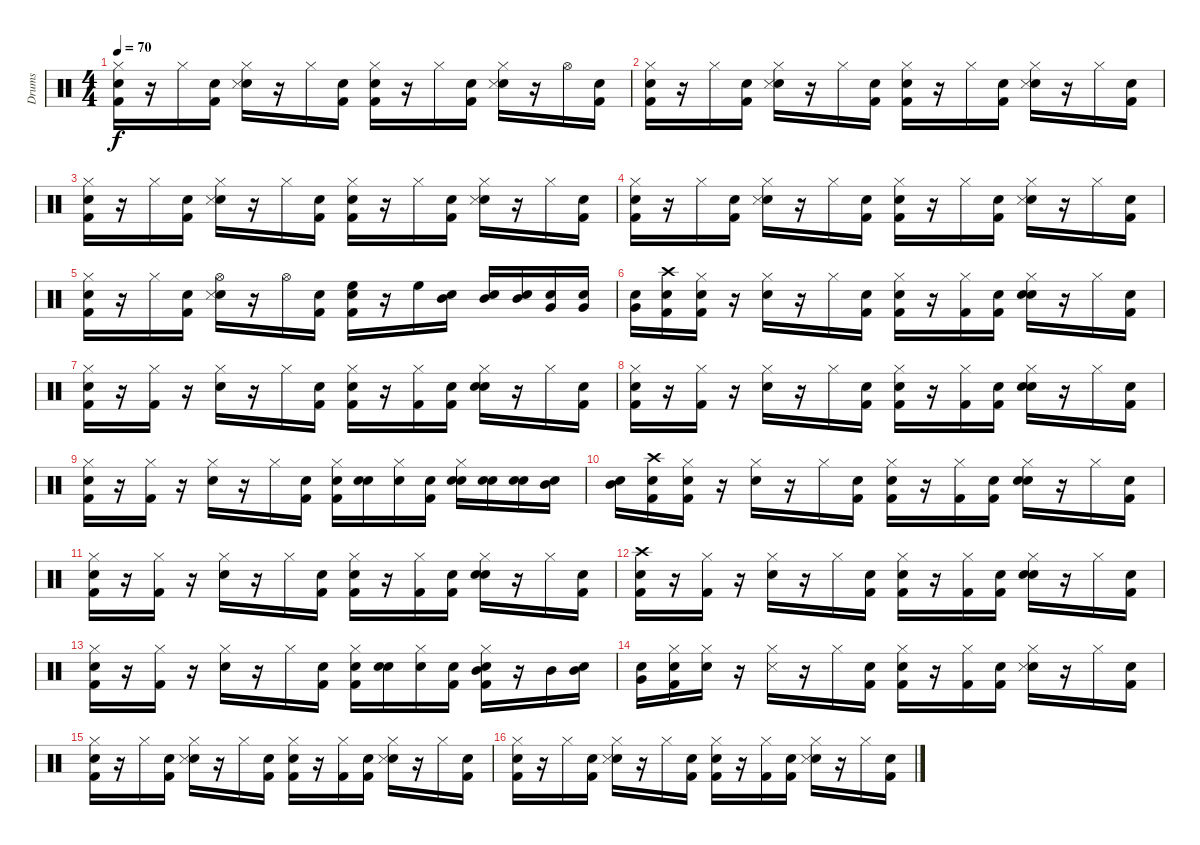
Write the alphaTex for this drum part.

\track ("Drums" "Drums") {instrument percussion}
\staff {score}
\articulation defaults
\ts (4 4)
\tempo 70
\clef neutral
\ks c
("Snare (hit)" "Kick (hit) 2" "Hi-Hat (closed)").16{dy f} r.16 "Hi-Hat (closed)".16 ("Snare (hit)" "Kick (hit) 2").16 ("Snare (hit)" "Snare (side stick) 3" "Hi-Hat (closed)").16 r.16 "Hi-Hat (closed)".16 ("Snare (hit)" "Kick (hit) 2").16 ("Snare (hit)" "Kick (hit) 2" "Hi-Hat (closed)").16 r.16 "Hi-Hat (closed)".16 ("Snare (hit)" "Kick (hit) 2").16 ("Snare (hit)" "Snare (side stick) 3" "Hi-Hat (closed)").16 r.16 "Hi-Hat (open)".16 ("Snare (hit)" "Kick (hit) 2").16 |
("Snare (hit)" "Kick (hit) 2" "Hi-Hat (closed)").16 r.16 "Hi-Hat (closed)".16 ("Snare (hit)" "Kick (hit) 2").16 ("Snare (hit)" "Snare (side stick) 3" "Hi-Hat (closed)").16 r.16 "Hi-Hat (closed)".16 ("Snare (hit)" "Kick (hit) 2").16 ("Snare (hit)" "Kick (hit) 2" "Hi-Hat (closed)").16 r.16 "Hi-Hat (closed)".16 ("Snare (hit)" "Kick (hit) 2").16 ("Snare (hit)" "Snare (side stick) 3" "Hi-Hat (closed)").16 r.16 "Hi-Hat (closed)".16 ("Snare (hit)" "Kick (hit) 2").16 |
("Snare (hit)" "Kick (hit) 2" "Hi-Hat (closed)").16 r.16 "Hi-Hat (closed)".16 ("Snare (hit)" "Kick (hit) 2").16 ("Snare (hit)" "Snare (side stick) 3" "Hi-Hat (closed)").16 r.16 "Hi-Hat (closed)".16 ("Snare (hit)" "Kick (hit) 2").16 ("Snare (hit)" "Kick (hit) 2" "Hi-Hat (closed)").16 r.16 "Hi-Hat (closed)".16 ("Snare (hit)" "Kick (hit) 2").16 ("Snare (hit)" "Snare (side stick) 3" "Hi-Hat (closed)").16 r.16 "Hi-Hat (closed)".16 ("Snare (hit)" "Kick (hit) 2").16 |
("Snare (hit)" "Kick (hit) 2" "Hi-Hat (closed)").16 r.16 "Hi-Hat (closed)".16 ("Snare (hit)" "Kick (hit) 2").16 ("Snare (hit)" "Snare (side stick) 3" "Hi-Hat (closed)").16 r.16 "Hi-Hat (closed)".16 ("Snare (hit)" "Kick (hit) 2").16 ("Snare (hit)" "Kick (hit) 2" "Hi-Hat (closed)").16 r.16 "Hi-Hat (closed)".16 ("Snare (hit)" "Kick (hit) 2").16 ("Snare (hit)" "Snare (side stick) 3" "Hi-Hat (closed)").16 r.16 "Hi-Hat (closed)".16 ("Snare (hit)" "Kick (hit) 2").16 |
("Snare (hit)" "Kick (hit) 2" "Hi-Hat (closed)").16 r.16 "Hi-Hat (closed)".16 ("Snare (hit)" "Kick (hit) 2").16 ("Snare (hit)" "Snare (side stick) 3" "Hi-Hat (open)").16 r.16 "Hi-Hat (open)".16 ("Snare (hit)" "Kick (hit) 2").16 ("Snare (hit)" "Kick (hit) 2" "High Floor Tom (hit)").16 r.16 "High Floor Tom (hit)".16 ("Snare (hit)" "Mid Tom (hit)").16 ("Snare (hit)" "Mid Tom (hit)").16 ("Snare (hit)" "Mid Tom (hit)").16 ("Snare (hit)" "Very Low Tom (hit)").16 ("Snare (hit)" "Very Low Tom (hit)").16 |
("Snare (hit)" "Very Low Tom (hit)").16 ("Snare (hit)" "Kick (hit) 2" "Crash high (hit)").16 ("Snare (hit)" "Kick (hit) 2" "Hi-Hat (closed)").16 r.16 ("Snare (hit) 2" "Hi-Hat (closed)").16 r.16 "Hi-Hat (closed)".16 ("Snare (hit)" "Kick (hit) 2").16 ("Snare (hit)" "Kick (hit) 2" "Hi-Hat (closed)").16 r.16 ("Kick (hit) 2" "Hi-Hat (closed)").16 ("Snare (hit)" "Kick (hit) 2").16 ("Snare (hit)" "Snare (hit) 2" "Hi-Hat (closed)").16 r.16 "Hi-Hat (closed)".16 ("Snare (hit)" "Kick (hit) 2").16 |
("Snare (hit)" "Kick (hit) 2" "Hi-Hat (closed)").16 r.16 ("Kick (hit) 2" "Hi-Hat (closed)").16 r.16 ("Snare (hit) 2" "Hi-Hat (closed)").16 r.16 "Hi-Hat (closed)".16 ("Snare (hit)" "Kick (hit) 2").16 ("Snare (hit)" "Kick (hit) 2" "Hi-Hat (closed)").16 r.16 ("Kick (hit) 2" "Hi-Hat (closed)").16 ("Snare (hit)" "Kick (hit) 2").16 ("Snare (hit)" "Snare (hit) 2" "Hi-Hat (closed)").16 r.16 "Hi-Hat (closed)".16 ("Snare (hit)" "Kick (hit) 2").16 |
("Snare (hit)" "Kick (hit) 2" "Hi-Hat (closed)").16 r.16 ("Kick (hit) 2" "Hi-Hat (closed)").16 r.16 ("Snare (hit) 2" "Hi-Hat (closed)").16 r.16 "Hi-Hat (closed)".16 ("Snare (hit)" "Kick (hit) 2").16 ("Snare (hit)" "Kick (hit) 2" "Hi-Hat (closed)").16 r.16 ("Kick (hit) 2" "Hi-Hat (closed)").16 ("Snare (hit)" "Kick (hit) 2").16 ("Snare (hit)" "Snare (hit) 2" "Hi-Hat (closed)").16 r.16 "Hi-Hat (closed)".16 ("Snare (hit)" "Kick (hit) 2").16 |
("Snare (hit)" "Kick (hit) 2" "Hi-Hat (closed)").16 r.16 ("Kick (hit) 2" "Hi-Hat (closed)").16 r.16 ("Snare (hit) 2" "Hi-Hat (closed)").16 r.16 "Hi-Hat (closed)".16 ("Snare (hit)" "Kick (hit) 2").16 ("Snare (hit)" "Kick (hit) 2" "Hi-Hat (closed)").16 ("Snare (hit)" "Snare (hit) 2").16 ("Snare (hit)" "Hi-Hat (closed)").16 ("Snare (hit)" "Kick (hit) 2").16 ("Snare (hit)" "Snare (hit) 2" "Hi-Hat (closed)").16 ("Snare (hit)" "Snare (hit) 2").16 ("Snare (hit)" "Snare (hit) 2").16 ("Snare (hit)" "Mid Tom (hit)").16 |
("Snare (hit)" "Mid Tom (hit)").16 ("Snare (hit)" "Kick (hit) 2" "Crash high (hit)").16 ("Snare (hit)" "Kick (hit) 2" "Hi-Hat (closed)").16 r.16 ("Snare (hit) 2" "Hi-Hat (closed)").16 r.16 "Hi-Hat (closed)".16 ("Snare (hit)" "Kick (hit) 2").16 ("Snare (hit)" "Kick (hit) 2" "Hi-Hat (closed)").16 r.16 ("Kick (hit) 2" "Hi-Hat (closed)").16 ("Snare (hit)" "Kick (hit) 2").16 ("Snare (hit)" "Snare (hit) 2" "Hi-Hat (closed)").16 r.16 "Hi-Hat (closed)".16 ("Snare (hit)" "Kick (hit) 2").16 |
("Snare (hit)" "Kick (hit) 2" "Hi-Hat (closed)").16 r.16 ("Kick (hit) 2" "Hi-Hat (closed)").16 r.16 ("Snare (hit) 2" "Hi-Hat (closed)").16 r.16 "Hi-Hat (closed)".16 ("Snare (hit)" "Kick (hit) 2").16 ("Snare (hit)" "Kick (hit) 2" "Hi-Hat (closed)").16 r.16 ("Kick (hit) 2" "Hi-Hat (closed)").16 ("Snare (hit)" "Kick (hit) 2").16 ("Snare (hit)" "Snare (hit) 2" "Hi-Hat (closed)").16 r.16 "Hi-Hat (closed)".16 ("Snare (hit)" "Kick (hit) 2").16 |
("Snare (hit)" "Kick (hit) 2" "Crash high (hit)").16 r.16 ("Kick (hit) 2" "Hi-Hat (closed)").16 r.16 ("Snare (hit) 2" "Hi-Hat (closed)").16 r.16 "Hi-Hat (closed)".16 ("Snare (hit)" "Kick (hit) 2").16 ("Snare (hit)" "Kick (hit) 2" "Hi-Hat (closed)").16 r.16 ("Kick (hit) 2" "Hi-Hat (closed)").16 ("Snare (hit)" "Kick (hit) 2").16 ("Snare (hit)" "Snare (hit) 2" "Hi-Hat (closed)").16 r.16 "Hi-Hat (closed)".16 ("Snare (hit)" "Kick (hit) 2").16 |
("Snare (hit)" "Kick (hit) 2" "Hi-Hat (closed)").16 r.16 ("Kick (hit) 2" "Hi-Hat (closed)").16 r.16 ("Snare (hit) 2" "Hi-Hat (closed)").16 r.16 "Hi-Hat (closed)".16 ("Snare (hit)" "Kick (hit) 2").16 ("Snare (hit)" "Kick (hit) 2" "Hi-Hat (closed)").16 ("Snare (hit)" "Snare (hit) 2").16 ("Snare (hit)" "Hi-Hat (closed)").16 ("Snare (hit)" "Kick (hit) 2").16 ("Snare (hit)" "Kick (hit) 2" "Hi-Hat (closed)" "Mid Tom (hit)").16 r.16 "Mid Tom (hit)".16 ("Snare (hit)" "Mid Tom (hit)").16 |
("Snare (hit)" "Very Low Tom (hit)").16 ("Snare (hit)" "Kick (hit) 2" "Hi-Hat (closed)").16 ("Snare (hit)" "Hi-Hat (closed)").16 r.16 ("Snare (side stick) 3" "Hi-Hat (closed)").16 r.16 "Hi-Hat (closed)".16 ("Snare (hit)" "Kick (hit) 2").16 ("Snare (hit)" "Kick (hit) 2" "Hi-Hat (closed)").16 r.16 ("Kick (hit) 2" "Hi-Hat (closed)").16 ("Snare (hit)" "Kick (hit) 2").16 ("Snare (hit)" "Snare (side stick) 3" "Hi-Hat (closed)").16 r.16 "Hi-Hat (closed)".16 ("Snare (hit)" "Kick (hit) 2").16 |
("Snare (hit)" "Kick (hit) 2" "Hi-Hat (closed)").16 r.16 "Hi-Hat (closed)".16 ("Snare (hit)" "Kick (hit) 2").16 ("Snare (hit)" "Snare (side stick) 3" "Hi-Hat (closed)").16 r.16 "Hi-Hat (closed)".16 ("Snare (hit)" "Kick (hit) 2").16 ("Snare (hit)" "Kick (hit) 2" "Hi-Hat (closed)").16 r.16 ("Kick (hit) 2" "Hi-Hat (closed)").16 ("Snare (hit)" "Kick (hit) 2").16 ("Snare (hit)" "Snare (side stick) 3" "Hi-Hat (closed)").16 r.16 "Hi-Hat (closed)".16 ("Snare (hit)" "Kick (hit) 2").16 |
("Snare (hit)" "Kick (hit) 2" "Hi-Hat (closed)").16 r.16 "Hi-Hat (closed)".16 ("Snare (hit)" "Kick (hit) 2").16 ("Snare (hit)" "Snare (side stick) 3" "Hi-Hat (closed)").16 r.16 "Hi-Hat (closed)".16 ("Snare (hit)" "Kick (hit) 2").16 ("Snare (hit)" "Kick (hit) 2" "Hi-Hat (closed)").16 r.16 ("Kick (hit) 2" "Hi-Hat (closed)").16 ("Snare (hit)" "Kick (hit) 2").16 ("Snare (hit)" "Snare (side stick) 3" "Hi-Hat (closed)").16 r.16 "Hi-Hat (closed)".16 ("Snare (hit)" "Kick (hit) 2").16
